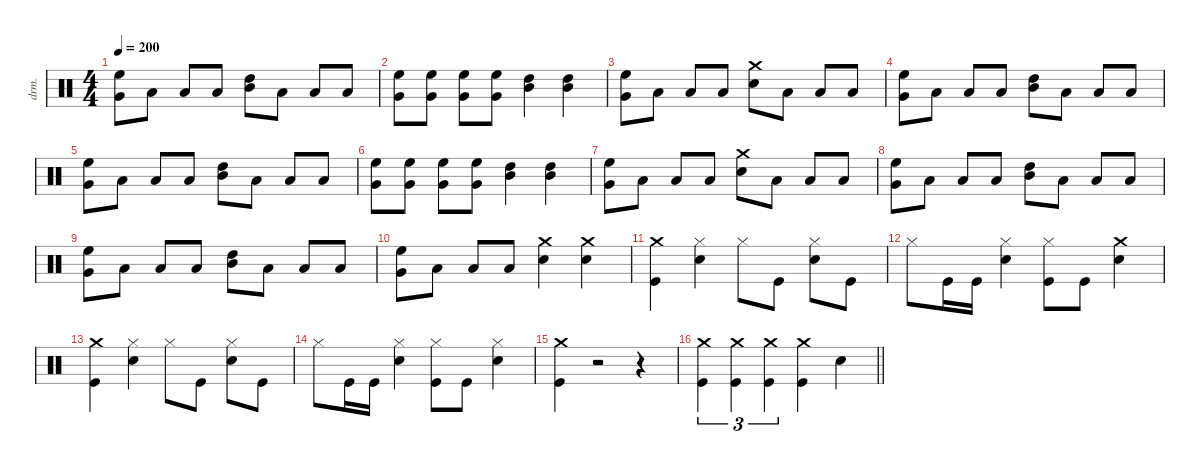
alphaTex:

\defaultSystemsLayout 4
\hideDynamics
\bracketExtendMode nobrackets
\otherSystemsTrackNameOrientation horizontal
\track ("Lars Ulrich (Drums)" "drm.") {instrument percussion}
\staff {score}
\articulation defaults
\ts (4 4)
\tempo 200
\clef neutral
\ks c
("High Floor Tom (hit)" "Very Low Tom (hit)").8{dy f beam Down} "Low Tom (hit)".8{beam Down} "Low Tom (hit)".8{beam Up} "Low Tom (hit)".8{beam Up} ("Mid Tom (hit)" "High Tom (hit)").8{beam Down} "Low Tom (hit)".8{beam Down} "Low Tom (hit)".8{beam Up} "Low Tom (hit)".8{beam Up} |
("High Floor Tom (hit)" "Very Low Tom (hit)").8{beam Down} ("High Floor Tom (hit)" "Very Low Tom (hit)").8{beam Down} ("High Floor Tom (hit)" "Very Low Tom (hit)").8{beam Down} ("High Floor Tom (hit)" "Very Low Tom (hit)").8{beam Down} ("Mid Tom (hit)" "High Tom (hit)").4{beam Down} ("Mid Tom (hit)" "High Tom (hit)").4{beam Down} |
("Very Low Tom (hit)" "High Floor Tom (hit)").8{beam Down} "Low Tom (hit)".8{beam Down} "Low Tom (hit)".8{beam Up} "Low Tom (hit)".8{beam Up} ("Crash medium (hit)" "Snare (hit) 2").8{beam Down} "Low Tom (hit)".8{beam Down} "Low Tom (hit)".8{beam Up} "Low Tom (hit)".8{beam Up} |
("High Floor Tom (hit)" "Very Low Tom (hit)").8{beam Down} "Low Tom (hit)".8{beam Down} "Low Tom (hit)".8{beam Up} "Low Tom (hit)".8{beam Up} ("Mid Tom (hit)" "High Tom (hit)").8{beam Down} "Low Tom (hit)".8{beam Down} "Low Tom (hit)".8{beam Up} "Low Tom (hit)".8{beam Up} |
("High Floor Tom (hit)" "Very Low Tom (hit)").8{beam Down} "Low Tom (hit)".8{beam Down} "Low Tom (hit)".8{beam Up} "Low Tom (hit)".8{beam Up} ("Mid Tom (hit)" "High Tom (hit)").8{beam Down} "Low Tom (hit)".8{beam Down} "Low Tom (hit)".8{beam Up} "Low Tom (hit)".8{beam Up} |
("High Floor Tom (hit)" "Very Low Tom (hit)").8{beam Down} ("High Floor Tom (hit)" "Very Low Tom (hit)").8{beam Down} ("High Floor Tom (hit)" "Very Low Tom (hit)").8{beam Down} ("High Floor Tom (hit)" "Very Low Tom (hit)").8{beam Down} ("Mid Tom (hit)" "High Tom (hit)").4{beam Down} ("Mid Tom (hit)" "High Tom (hit)").4{beam Down} |
("Very Low Tom (hit)" "High Floor Tom (hit)").8{beam Down} "Low Tom (hit)".8{beam Down} "Low Tom (hit)".8{beam Up} "Low Tom (hit)".8{beam Up} ("Crash medium (hit)" "Snare (hit) 2").8{beam Down} "Low Tom (hit)".8{beam Down} "Low Tom (hit)".8{beam Up} "Low Tom (hit)".8{beam Up} |
("High Floor Tom (hit)" "Very Low Tom (hit)").8{beam Down} "Low Tom (hit)".8{beam Down} "Low Tom (hit)".8{beam Up} "Low Tom (hit)".8{beam Up} ("Mid Tom (hit)" "High Tom (hit)").8{beam Down} "Low Tom (hit)".8{beam Down} "Low Tom (hit)".8{beam Up} "Low Tom (hit)".8{beam Up} |
("High Floor Tom (hit)" "Very Low Tom (hit)").8{beam Down} "Low Tom (hit)".8{beam Down} "Low Tom (hit)".8{beam Up} "Low Tom (hit)".8{beam Up} ("Mid Tom (hit)" "High Tom (hit)").8{beam Down} "Low Tom (hit)".8{beam Down} "Low Tom (hit)".8{beam Up} "Low Tom (hit)".8{beam Up} |
("Very Low Tom (hit)" "High Floor Tom (hit)").8{beam Down} "Low Tom (hit)".8{beam Down} "Low Tom (hit)".8{beam Up} "Low Tom (hit)".8{beam Up} ("Crash medium (hit)" "Snare (hit) 2").4{beam Down} ("Crash medium (hit)" "Snare (hit) 2").4{beam Down} |
("Kick (hit)" "Crash medium (hit)").4{beam Down} ("Hi-Hat (closed)" "Snare (hit) 2").4{beam Down} "Hi-Hat (closed)".8{beam Down} "Kick (hit)".8{beam Down} ("Snare (hit) 2" "Hi-Hat (closed)").8{beam Down} "Kick (hit)".8{beam Down} |
"Hi-Hat (closed)".8{beam Down} "Kick (hit)".16{beam Down} "Kick (hit)".16{beam Down} ("Snare (hit) 2" "Hi-Hat (closed)").4{beam Down} ("Hi-Hat (closed)" "Kick (hit)").8{beam Down} "Kick (hit)".8{beam Down} ("Crash medium (hit)" "Snare (hit) 2").4{beam Down} |
("Kick (hit)" "Crash medium (hit)").4{beam Down} ("Hi-Hat (closed)" "Snare (hit) 2").4{beam Down} "Hi-Hat (closed)".8{beam Down} "Kick (hit)".8{beam Down} ("Snare (hit) 2" "Hi-Hat (closed)").8{beam Down} "Kick (hit)".8{beam Down} |
"Hi-Hat (closed)".8{beam Down} "Kick (hit)".16{beam Down} "Kick (hit)".16{beam Down} ("Snare (hit) 2" "Hi-Hat (closed)").4{beam Down} ("Hi-Hat (closed)" "Kick (hit)").8{beam Down} "Kick (hit)".8{beam Down} ("Snare (hit) 2" "Hi-Hat (closed)").4{beam Down} |
("Crash medium (hit)" "Kick (hit)").4{beam Down} r.2{beam Down} r.4{beam Down} |
\barLineRight lightlight
("Kick (hit)" "Crash medium (hit)").4{tu (3 2) beam Down} ("Kick (hit)" "Crash medium (hit)").4{tu (3 2) beam Down} ("Kick (hit)" "Crash medium (hit)").4{tu (3 2) beam Down} ("Kick (hit)" "Crash medium (hit)").4{beam Down} "Snare (hit) 2".4{beam Down}
